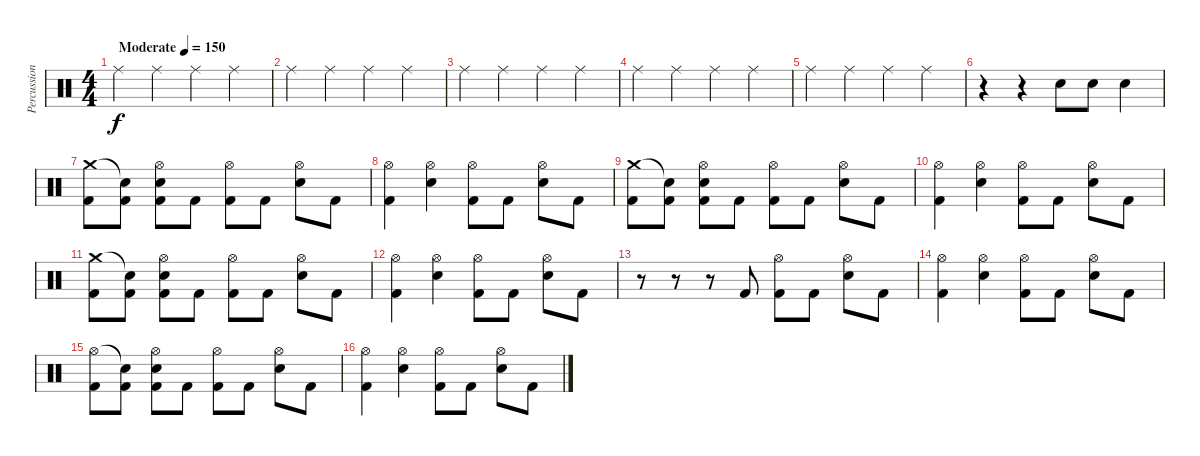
\track ("Percussion" "Percussion") {instrument percussion}
\staff {score}
\articulation defaults
\ts (4 4)
\tempo (150 "Moderate")
\clef neutral
\ks c "Ride (middle)".4{dy f} "Ride (middle)".4 "Ride (middle)".4 "Ride (middle)".4
|
"Ride (middle)".4 "Ride (middle)".4 "Ride (middle)".4 "Ride (middle)".4 |
"Ride (middle)".4 "Ride (middle)".4 "Ride (middle)".4 "Ride (middle)".4 |
"Ride (middle)".4 "Ride (middle)".4 "Ride (middle)".4 "Ride (middle)".4 |
"Ride (middle)".4 "Ride (middle)".4 "Ride (middle)".4 "Ride (middle)".4 |
r.4 r.4 "Electric Snare (hit)".8 "Electric Snare (hit)".8 "Electric Snare (hit)".4 |
("Crash medium (hit)" "Kick (hit) 2").8 ("Snare (hit)"{t} "Kick (hit) 2").8 ("Hi-Hat (open)" "Electric Snare (hit)" "Kick (hit) 2").8 "Kick (hit) 2".8 ("Hi-Hat (open)" "Kick (hit) 2").8 "Kick (hit) 2".8 ("Hi-Hat (open)" "Electric Snare (hit)").8 "Kick (hit) 2".8 |
("Hi-Hat (open)" "Kick (hit) 2").4 ("Hi-Hat (open)" "Electric Snare (hit)").4 ("Hi-Hat (open)" "Kick (hit) 2").8 "Kick (hit) 2".8 ("Hi-Hat (open)" "Electric Snare (hit)").8 "Kick (hit) 2".8 |
("Crash medium (hit)" "Kick (hit) 2").8 ("Snare (hit)"{t} "Kick (hit) 2").8 ("Hi-Hat (open)" "Electric Snare (hit)" "Kick (hit) 2").8 "Kick (hit) 2".8 ("Hi-Hat (open)" "Kick (hit) 2").8 "Kick (hit) 2".8 ("Hi-Hat (open)" "Electric Snare (hit)").8 "Kick (hit) 2".8 |
("Hi-Hat (open)" "Kick (hit) 2").4 ("Hi-Hat (open)" "Electric Snare (hit)").4 ("Hi-Hat (open)" "Kick (hit) 2").8 "Kick (hit) 2".8 ("Hi-Hat (open)" "Electric Snare (hit)").8 "Kick (hit) 2".8 |
("Crash medium (hit)" "Kick (hit) 2").8 ("Snare (hit)"{t} "Kick (hit) 2").8 ("Hi-Hat (open)" "Electric Snare (hit)" "Kick (hit) 2").8 "Kick (hit) 2".8 ("Hi-Hat (open)" "Kick (hit) 2").8 "Kick (hit) 2".8 ("Hi-Hat (open)" "Electric Snare (hit)").8 "Kick (hit) 2".8 |
("Hi-Hat (open)" "Kick (hit) 2").4 ("Hi-Hat (open)" "Electric Snare (hit)").4 ("Hi-Hat (open)" "Kick (hit) 2").8 "Kick (hit) 2".8 ("Hi-Hat (open)" "Electric Snare (hit)").8 "Kick (hit) 2".8 |
r.8 r.8 r.8 "Kick (hit) 2".8 ("Hi-Hat (open)" "Kick (hit) 2").8 "Kick (hit) 2".8 ("Hi-Hat (open)" "Electric Snare (hit)").8 "Kick (hit) 2".8 |
("Hi-Hat (open)" "Kick (hit) 2").4 ("Hi-Hat (open)" "Electric Snare (hit)").4 ("Hi-Hat (open)" "Kick (hit) 2").8 "Kick (hit) 2".8 ("Hi-Hat (open)" "Electric Snare (hit)").8 "Kick (hit) 2".8 |
("Hi-Hat (open)" "Kick (hit) 2").8 ("Snare (hit)"{t} "Kick (hit) 2").8 ("Hi-Hat (open)" "Electric Snare (hit)" "Kick (hit) 2").8 "Kick (hit) 2".8 ("Hi-Hat (open)" "Kick (hit) 2").8 "Kick (hit) 2".8 ("Hi-Hat (open)" "Electric Snare (hit)").8 "Kick (hit) 2".8 |
("Hi-Hat (open)" "Kick (hit) 2").4 ("Hi-Hat (open)" "Electric Snare (hit)").4 ("Hi-Hat (open)" "Kick (hit) 2").8 "Kick (hit) 2".8 ("Hi-Hat (open)" "Electric Snare (hit)").8 "Kick (hit) 2".8
